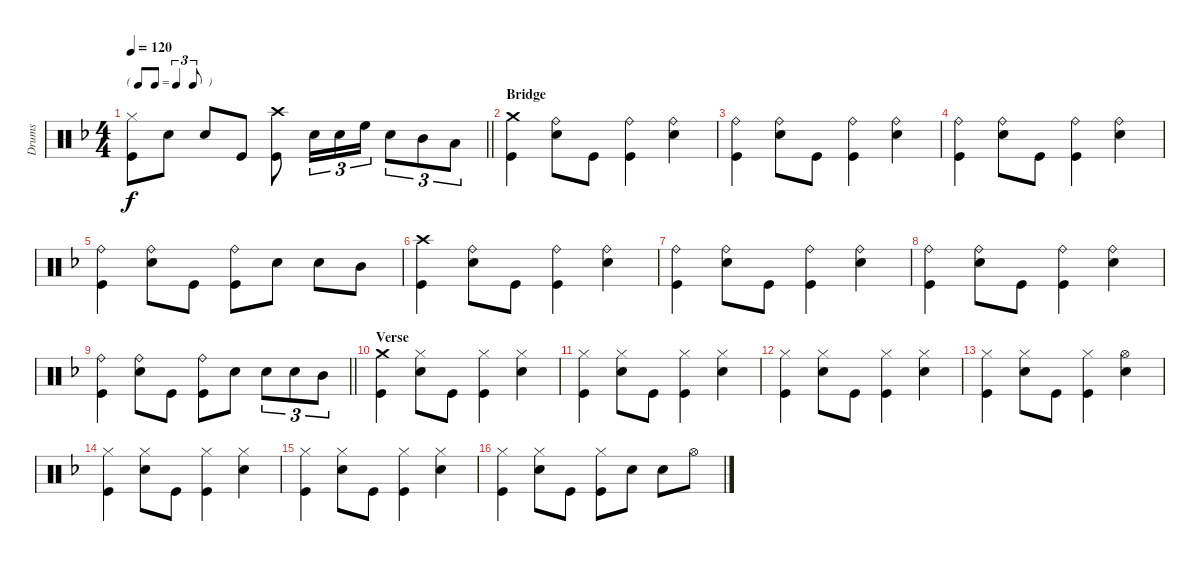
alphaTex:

\track ("Drums" "Drums") {instrument percussion bank 10}
\staff {score}
\articulation defaults
\ts (4 4)
\tf triplet8th
\tempo 120
\clef neutral
\barLineRight lightlight
\ks f
("Hi-Hat (closed)" "Kick (hit)").8{dy f} "Snare (hit) 2".8 "Snare (hit) 2".8 "Kick (hit)".8 ("Crash high (hit)" "Kick (hit)").8 "Snare (hit) 2".16{tu (3 2)} "Snare (hit) 2".16{tu (3 2)} "High Floor Tom (hit)".16{tu (3 2)} "Snare (hit) 2".8{tu (3 2)} "Mid Tom (hit)".8{tu (3 2)} "Low Floor Tom (hit)".8{tu (3 2)} |
\section ("" "Bridge")
("Crash medium (hit)" "Kick (hit)").4 ("Ride (bell)" "Snare (hit) 2").8 "Kick (hit)".8 ("Ride (bell)" "Kick (hit)").4 ("Ride (bell)" "Snare (hit) 2").4 |
("Ride (bell)" "Kick (hit)").4 ("Ride (bell)" "Snare (hit) 2").8 "Kick (hit)".8 ("Ride (bell)" "Kick (hit)").4 ("Ride (bell)" "Snare (hit) 2").4 |
("Ride (bell)" "Kick (hit)").4 ("Ride (bell)" "Snare (hit) 2").8 "Kick (hit)".8 ("Ride (bell)" "Kick (hit)").4 ("Ride (bell)" "Snare (hit) 2").4 |
("Ride (bell)" "Kick (hit)").4 ("Ride (bell)" "Snare (hit) 2").8 "Kick (hit)".8 ("Ride (bell)" "Kick (hit)").8 "Snare (hit) 2".8 "Snare (hit) 2".8 "Mid Tom (hit)".8 |
("Crash high (hit)" "Kick (hit)").4 ("Ride (bell)" "Snare (hit) 2").8 "Kick (hit)".8 ("Ride (bell)" "Kick (hit)").4 ("Ride (bell)" "Snare (hit) 2").4 |
("Ride (bell)" "Kick (hit)").4 ("Ride (bell)" "Snare (hit) 2").8 "Kick (hit)".8 ("Ride (bell)" "Kick (hit)").4 ("Ride (bell)" "Snare (hit) 2").4 |
("Ride (bell)" "Kick (hit)").4 ("Ride (bell)" "Snare (hit) 2").8 "Kick (hit)".8 ("Ride (bell)" "Kick (hit)").4 ("Ride (bell)" "Snare (hit) 2").4 |
\barLineRight lightlight
("Ride (bell)" "Kick (hit)").4 ("Ride (bell)" "Snare (hit) 2").8 "Kick (hit)".8 ("Ride (bell)" "Kick (hit)").8 "Snare (hit) 2".8 "Snare (hit) 2".8{tu (3 2)} "Snare (hit) 2".8{tu (3 2)} "Mid Tom (hit)".8{tu (3 2)} |
\section ("" "Verse")
("Crash medium (hit)" "Kick (hit)").4 ("Hi-Hat (closed)" "Snare (hit) 2").8 "Kick (hit)".8 ("Hi-Hat (closed)" "Kick (hit)").4 ("Hi-Hat (closed)" "Snare (hit) 2").4 |
("Hi-Hat (closed)" "Kick (hit)").4 ("Hi-Hat (closed)" "Snare (hit) 2").8 "Kick (hit)".8 ("Hi-Hat (closed)" "Kick (hit)").4 ("Hi-Hat (closed)" "Snare (hit) 2").4 |
("Hi-Hat (closed)" "Kick (hit)").4 ("Hi-Hat (closed)" "Snare (hit) 2").8 "Kick (hit)".8 ("Hi-Hat (closed)" "Kick (hit)").4 ("Hi-Hat (closed)" "Snare (hit) 2").4 |
("Hi-Hat (closed)" "Kick (hit)").4 ("Hi-Hat (closed)" "Snare (hit) 2").8 "Kick (hit)".8 ("Hi-Hat (closed)" "Kick (hit)").4 ("Hi-Hat (open)" "Snare (hit) 2").4 |
("Hi-Hat (closed)" "Kick (hit)").4 ("Hi-Hat (closed)" "Snare (hit) 2").8 "Kick (hit)".8 ("Hi-Hat (closed)" "Kick (hit)").4 ("Hi-Hat (closed)" "Snare (hit) 2").4 |
("Hi-Hat (closed)" "Kick (hit)").4 ("Hi-Hat (closed)" "Snare (hit) 2").8 "Kick (hit)".8 ("Hi-Hat (closed)" "Kick (hit)").4 ("Hi-Hat (closed)" "Snare (hit) 2").4 |
("Hi-Hat (closed)" "Kick (hit)").4 ("Hi-Hat (closed)" "Snare (hit) 2").8 "Kick (hit)".8 ("Hi-Hat (closed)" "Kick (hit)").8 "Snare (hit) 2".8 "Snare (hit) 2".8 "Hi-Hat (open)".8
